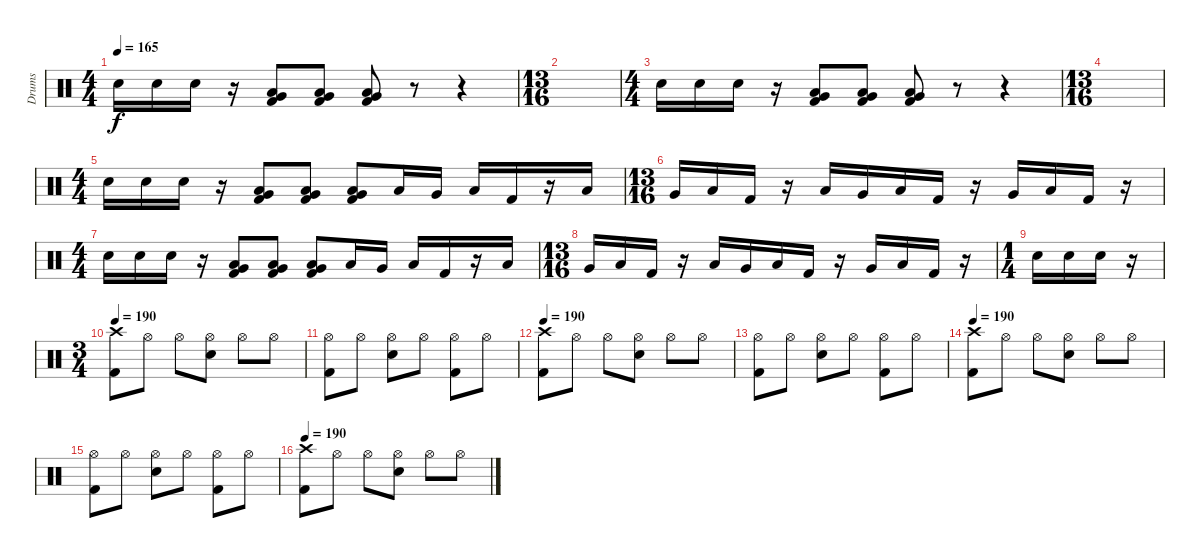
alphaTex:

\track ("Drums" "Drums") {instrument percussion}
\staff {score}
\articulation defaults
\ts (4 4)
\tempo 165
\clef neutral
\ks c "Electric Snare (hit)".16{dy f} "Electric Snare (hit)".16 "Electric Snare (hit)".16
r.16 ("Low Tom (hit)" "Very Low Tom (hit)" "Kick (hit) 2").8 ("Very Low Tom (hit)" "Low Floor Tom (hit)" "Kick (hit) 2").8 ("Very Low Tom (hit)" "Low Floor Tom (hit)" "Kick (hit) 2").8 r.8 r.4 |
\ts (13 16)
|
\ts (4 4)
"Electric Snare (hit)".16 "Electric Snare (hit)".16 "Electric Snare (hit)".16 r.16 ("Low Tom (hit)" "Very Low Tom (hit)" "Kick (hit) 2").8 ("Very Low Tom (hit)" "Low Floor Tom (hit)" "Kick (hit) 2").8 ("Very Low Tom (hit)" "Low Floor Tom (hit)" "Kick (hit) 2").8 r.8 r.4 |
\ts (13 16)
|
\ts (4 4)
"Electric Snare (hit)".16 "Electric Snare (hit)".16 "Electric Snare (hit)".16 r.16 ("Low Tom (hit)" "Very Low Tom (hit)" "Kick (hit) 2").8 ("Very Low Tom (hit)" "Low Floor Tom (hit)" "Kick (hit) 2").8 ("Very Low Tom (hit)" "Low Floor Tom (hit)" "Kick (hit) 2").8 "Low Tom (hit)".16 "Very Low Tom (hit)".16 "Low Floor Tom (hit)".16 "Kick (hit) 2".16 r.16 "Low Tom (hit)".16 |
\ts (13 16)
"Very Low Tom (hit)".16 "Low Floor Tom (hit)".16 "Kick (hit) 2".16 r.16 "Low Tom (hit)".16 "Very Low Tom (hit)".16 "Low Floor Tom (hit)".16 "Kick (hit) 2".16 r.16 "Very Low Tom (hit)".16 "Low Floor Tom (hit)".16 "Kick (hit) 2".16 r.16 |
\ts (4 4)
"Electric Snare (hit)".16 "Electric Snare (hit)".16 "Electric Snare (hit)".16 r.16 ("Low Tom (hit)" "Very Low Tom (hit)" "Kick (hit) 2").8 ("Very Low Tom (hit)" "Low Floor Tom (hit)" "Kick (hit) 2").8 ("Very Low Tom (hit)" "Low Floor Tom (hit)" "Kick (hit) 2").8 "Low Tom (hit)".16 "Very Low Tom (hit)".16 "Low Floor Tom (hit)".16 "Kick (hit) 2".16 r.16 "Low Tom (hit)".16 |
\ts (13 16)
"Very Low Tom (hit)".16 "Low Floor Tom (hit)".16 "Kick (hit) 2".16 r.16 "Low Tom (hit)".16 "Very Low Tom (hit)".16 "Low Floor Tom (hit)".16 "Kick (hit) 2".16 r.16 "Very Low Tom (hit)".16 "Low Floor Tom (hit)".16 "Kick (hit) 2".16 r.16 |
\ts (1 4)
"Electric Snare (hit)".16 "Electric Snare (hit)".16 "Electric Snare (hit)".16 r.16 |
\ts (3 4)
\tempo 190
("Crash high (hit)" "Kick (hit) 2").8 "Hi-Hat (open)".8 "Hi-Hat (open)".8 ("Hi-Hat (open)" "Electric Snare (hit)").8 "Hi-Hat (open)".8 "Hi-Hat (open)".8 |
("Hi-Hat (open)" "Kick (hit) 2").8 "Hi-Hat (open)".8 ("Hi-Hat (open)" "Electric Snare (hit)").8 "Hi-Hat (open)".8 ("Hi-Hat (open)" "Kick (hit) 2").8 "Hi-Hat (open)".8 |
\tempo 190
("Crash high (hit)" "Kick (hit) 2").8 "Hi-Hat (open)".8 "Hi-Hat (open)".8 ("Hi-Hat (open)" "Electric Snare (hit)").8 "Hi-Hat (open)".8 "Hi-Hat (open)".8 |
("Hi-Hat (open)" "Kick (hit) 2").8 "Hi-Hat (open)".8 ("Hi-Hat (open)" "Electric Snare (hit)").8 "Hi-Hat (open)".8 ("Hi-Hat (open)" "Kick (hit) 2").8 "Hi-Hat (open)".8 |
\tempo 190
("Crash high (hit)" "Kick (hit) 2").8 "Hi-Hat (open)".8 "Hi-Hat (open)".8 ("Hi-Hat (open)" "Electric Snare (hit)").8 "Hi-Hat (open)".8 "Hi-Hat (open)".8 |
("Hi-Hat (open)" "Kick (hit) 2").8 "Hi-Hat (open)".8 ("Hi-Hat (open)" "Electric Snare (hit)").8 "Hi-Hat (open)".8 ("Hi-Hat (open)" "Kick (hit) 2").8 "Hi-Hat (open)".8 |
\tempo 190
("Crash high (hit)" "Kick (hit) 2").8 "Hi-Hat (open)".8 "Hi-Hat (open)".8 ("Hi-Hat (open)" "Electric Snare (hit)").8 "Hi-Hat (open)".8 "Hi-Hat (open)".8
